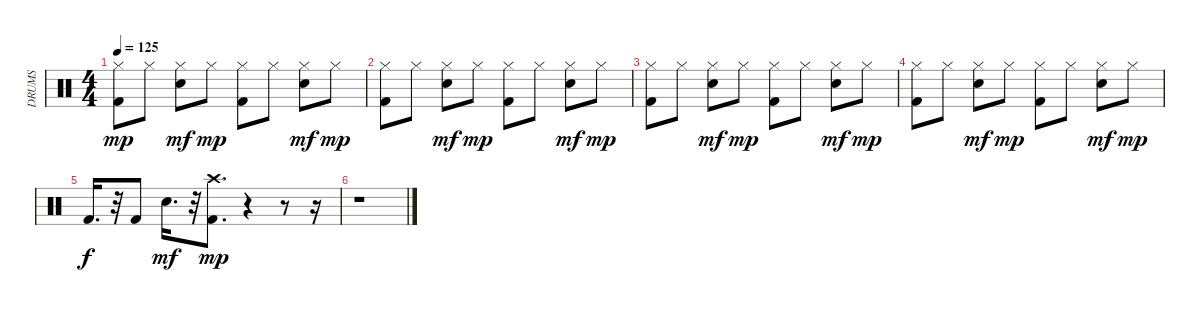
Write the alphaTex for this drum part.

\track ("DRUMS" "DRUMS") {instrument percussion}
\staff {score}
\articulation defaults
\ts (4 4)
\tempo 125
\clef neutral
\ks c
("Hi-Hat (closed)" "Kick (hit) 2").8{dy mp} "Hi-Hat (closed)".8 ("Hi-Hat (closed)" "Snare (hit) 2").8{dy mf} "Hi-Hat (closed)".8{dy mp} ("Hi-Hat (closed)" "Kick (hit) 2").8 "Hi-Hat (closed)".8 ("Hi-Hat (closed)" "Snare (hit) 2").8{dy mf} "Hi-Hat (closed)".8{dy mp} |
("Hi-Hat (closed)" "Kick (hit) 2").8 "Hi-Hat (closed)".8 ("Hi-Hat (closed)" "Snare (hit) 2").8{dy mf} "Hi-Hat (closed)".8{dy mp} ("Hi-Hat (closed)" "Kick (hit) 2").8 "Hi-Hat (closed)".8 ("Hi-Hat (closed)" "Snare (hit) 2").8{dy mf} "Hi-Hat (closed)".8{dy mp} |
("Hi-Hat (closed)" "Kick (hit) 2").8 "Hi-Hat (closed)".8 ("Hi-Hat (closed)" "Snare (hit) 2").8{dy mf} "Hi-Hat (closed)".8{dy mp} ("Hi-Hat (closed)" "Kick (hit) 2").8 "Hi-Hat (closed)".8 ("Hi-Hat (closed)" "Snare (hit) 2").8{dy mf} "Hi-Hat (closed)".8{dy mp} |
("Hi-Hat (closed)" "Kick (hit) 2").8 "Hi-Hat (closed)".8 ("Hi-Hat (closed)" "Snare (hit) 2").8{dy mf} "Hi-Hat (closed)".8{dy mp} ("Hi-Hat (closed)" "Kick (hit) 2").8 "Hi-Hat (closed)".8 ("Hi-Hat (closed)" "Snare (hit) 2").8{dy mf} "Hi-Hat (closed)".8{dy mp} |
"Kick (hit) 2".16{d dy f} r.32 "Kick (hit) 2".8 "Snare (hit) 2".16{d dy mf} r.32 ("Crash high (hit)" "Kick (hit) 2").8{d dy mp} r.4 r.8 r.16 |
r.1
